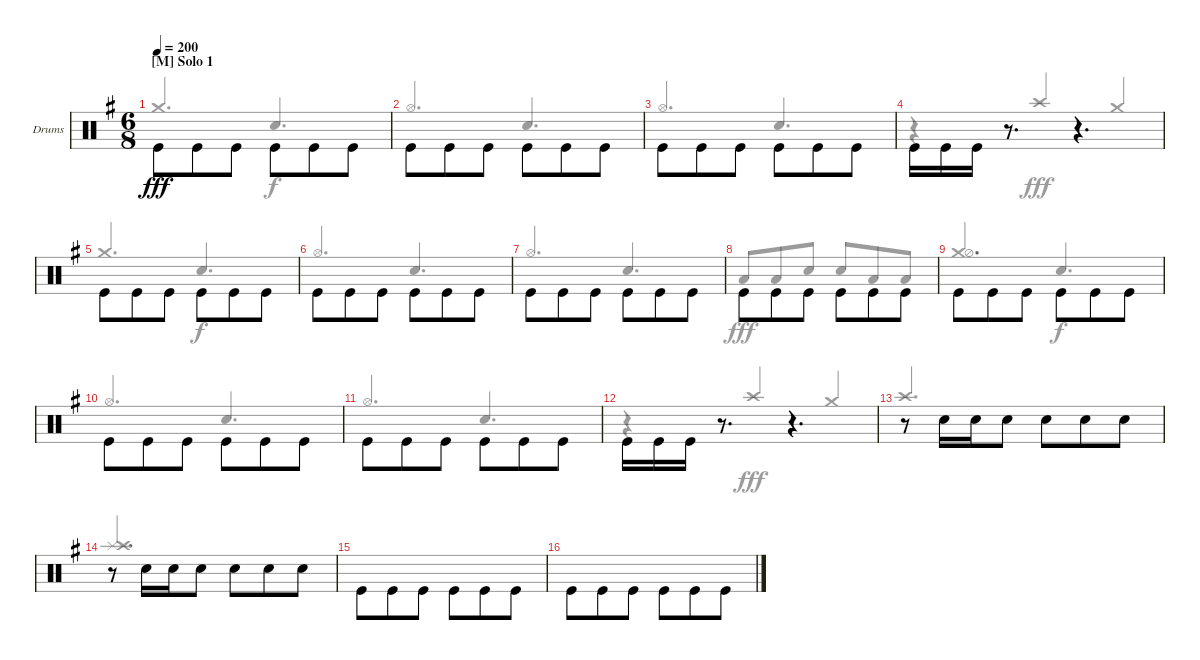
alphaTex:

\bracketExtendMode groupsimilarinstruments
\firstSystemTrackNameOrientation horizontal
\otherSystemsTrackNameOrientation horizontal
\track ("Drumkit" "Drums") {instrument percussion}
\staff {score}
\articulation defaults
\voice
\ts (6 8)
\section ("M" "Solo 1")
\tempo 200
\clef neutral
\ks eminor "Kick (hit)".8{dy fff beam invert} "Kick (hit)".8{beam invert} "Kick (hit)".8{beam invert} "Kick (hit)".8 "Kick (hit)".8 "Kick (hit)".8{beam invert}
|
"Kick (hit)".8{beam invert} "Kick (hit)".8{beam invert} "Kick (hit)".8{beam invert} "Kick (hit)".8 "Kick (hit)".8 "Kick (hit)".8{beam invert} |
"Kick (hit)".8{beam invert} "Kick (hit)".8{beam invert} "Kick (hit)".8{beam invert} "Kick (hit)".8 "Kick (hit)".8 "Kick (hit)".8{beam invert} |
"Kick (hit)".16{beam invert} "Kick (hit)".16{beam invert} "Kick (hit)".16{beam invert} r.8{d} r.4{d} |
"Kick (hit)".8{beam invert} "Kick (hit)".8{beam invert} "Kick (hit)".8{beam invert} "Kick (hit)".8 "Kick (hit)".8 "Kick (hit)".8{beam invert} |
"Kick (hit)".8{beam invert} "Kick (hit)".8{beam invert} "Kick (hit)".8{beam invert} "Kick (hit)".8 "Kick (hit)".8 "Kick (hit)".8{beam invert} |
"Kick (hit)".8{beam invert} "Kick (hit)".8{beam invert} "Kick (hit)".8{beam invert} "Kick (hit)".8 "Kick (hit)".8 "Kick (hit)".8{beam invert} |
"Kick (hit)".8{beam invert} "Kick (hit)".8{beam invert} "Kick (hit)".8{beam invert} "Kick (hit)".8 "Kick (hit)".8 "Kick (hit)".8{beam invert} |
"Kick (hit)".8{beam invert} "Kick (hit)".8{beam invert} "Kick (hit)".8{beam invert} "Kick (hit)".8 "Kick (hit)".8 "Kick (hit)".8{beam invert} |
"Kick (hit)".8{beam invert} "Kick (hit)".8{beam invert} "Kick (hit)".8{beam invert} "Kick (hit)".8 "Kick (hit)".8 "Kick (hit)".8{beam invert} |
"Kick (hit)".8{beam invert} "Kick (hit)".8{beam invert} "Kick (hit)".8{beam invert} "Kick (hit)".8 "Kick (hit)".8 "Kick (hit)".8{beam invert} |
"Kick (hit)".16{beam invert} "Kick (hit)".16{beam invert} "Kick (hit)".16{beam invert} r.8{d} r.4{d} |
r.8 "Snare (hit) 2".16{beam invert} "Snare (hit) 2".16 "Snare (hit) 2".8 "Snare (hit) 2".8{beam invert} "Snare (hit) 2".8 "Snare (hit) 2".8 |
r.8{beam invert} "Snare (hit) 2".16 "Snare (hit) 2".16 "Snare (hit) 2".8{beam invert} "Snare (hit) 2".8{beam invert} "Snare (hit) 2".8 "Snare (hit) 2".8 |
"Kick (hit)".8{beam invert} "Kick (hit)".8{beam invert} "Kick (hit)".8{beam invert} "Kick (hit)".8 "Kick (hit)".8 "Kick (hit)".8{beam invert} |
"Kick (hit)".8{beam invert} "Kick (hit)".8{beam invert} "Kick (hit)".8{beam invert} "Kick (hit)".8 "Kick (hit)".8 "Kick (hit)".8{beam invert}
\voice
\clef neutral
\ottava regular
\simile none
\ks eminor "Crash medium (hit)".4{d dy fff beam invert} "Snare (hit) 2".4{d dy f beam invert}
|
"Hi-Hat (open)".4{d beam invert} "Snare (hit) 2".4{d beam invert} |
"Hi-Hat (open)".4{d beam invert} "Snare (hit) 2".4{d beam invert} |
r.4 "Crash high (hit)".4{dy fff beam invert} "Crash medium (hit)".4{beam invert} |
"Crash medium (hit)".4{d beam invert} "Snare (hit) 2".4{d dy f beam invert} |
"Hi-Hat (open)".4{d beam invert} "Snare (hit) 2".4{d beam invert} |
"Hi-Hat (open)".4{d beam invert} "Snare (hit) 2".4{d beam invert} |
"Low Tom (hit)".8{dy fff beam invert} "Low Tom (hit)".8 "Snare (hit) 2".8 "Snare (hit) 2".8{beam invert} "Low Tom (hit)".8 "Low Tom (hit)".8 |
("Crash medium (hit)" "Hi-Hat (half)").4{d beam invert} "Snare (hit) 2".4{d dy f beam invert} |
"Hi-Hat (open)".4{d beam invert} "Snare (hit) 2".4{d beam invert} |
"Hi-Hat (open)".4{d beam invert} "Snare (hit) 2".4{d beam invert} |
r.4 "Crash high (hit)".4{dy fff beam invert} "Crash medium (hit)".4{beam invert} |
"Crash high (hit)".2{d beam invert} |
("Splash (hit)" "Crash high (hit)").2{d beam invert} |
|
